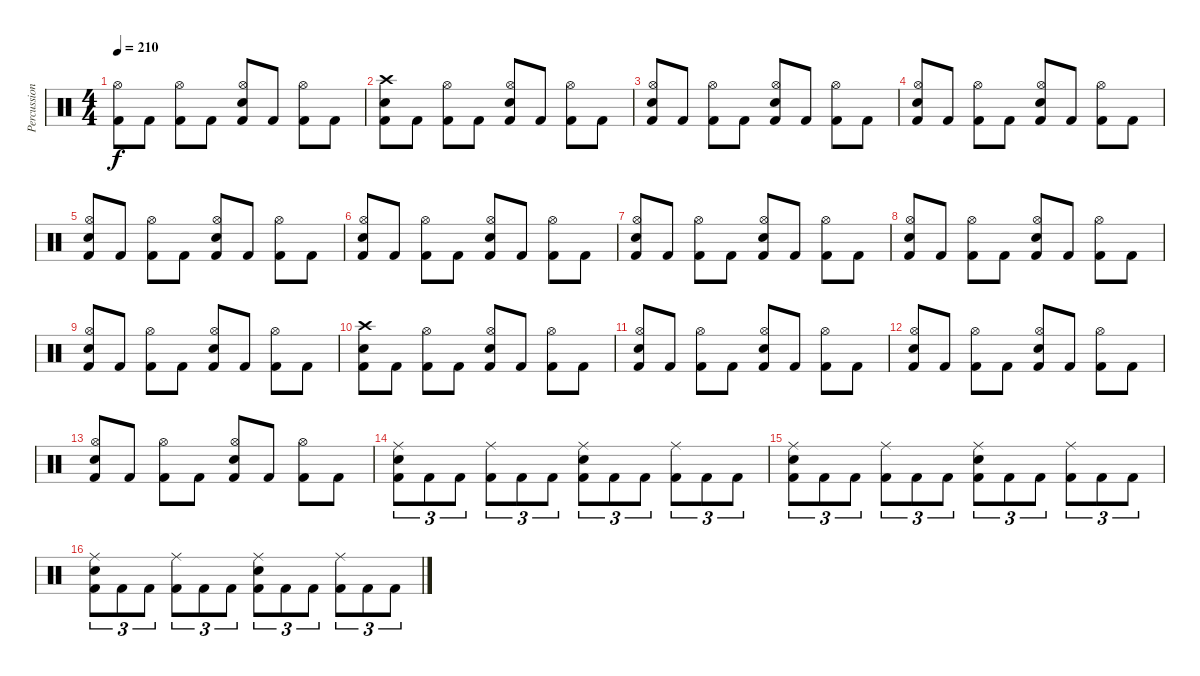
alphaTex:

\track ("Percussions" "Percussion") {instrument percussion}
\staff {score}
\articulation defaults
\ts (4 4)
\tempo 210
\clef neutral
\ks c
("Kick (hit) 2" "Hi-Hat (open)").8{dy f} "Kick (hit) 2".8 ("Kick (hit) 2" "Hi-Hat (open)").8 "Kick (hit) 2".8 ("Kick (hit) 2" "Electric Snare (hit)" "Hi-Hat (open)").8 "Kick (hit) 2".8 ("Kick (hit) 2" "Hi-Hat (open)").8 "Kick (hit) 2".8 |
("Kick (hit) 2" "Electric Snare (hit)" "Crash high (hit)").8 "Kick (hit) 2".8 ("Kick (hit) 2" "Hi-Hat (open)").8 "Kick (hit) 2".8 ("Kick (hit) 2" "Electric Snare (hit)" "Hi-Hat (open)").8 "Kick (hit) 2".8 ("Kick (hit) 2" "Hi-Hat (open)").8 "Kick (hit) 2".8 |
("Kick (hit) 2" "Electric Snare (hit)" "Hi-Hat (open)").8 "Kick (hit) 2".8 ("Kick (hit) 2" "Hi-Hat (open)").8 "Kick (hit) 2".8 ("Kick (hit) 2" "Electric Snare (hit)" "Hi-Hat (open)").8 "Kick (hit) 2".8 ("Kick (hit) 2" "Hi-Hat (open)").8 "Kick (hit) 2".8 |
("Kick (hit) 2" "Electric Snare (hit)" "Hi-Hat (open)").8 "Kick (hit) 2".8 ("Kick (hit) 2" "Hi-Hat (open)").8 "Kick (hit) 2".8 ("Kick (hit) 2" "Electric Snare (hit)" "Hi-Hat (open)").8 "Kick (hit) 2".8 ("Kick (hit) 2" "Hi-Hat (open)").8 "Kick (hit) 2".8 |
("Kick (hit) 2" "Electric Snare (hit)" "Hi-Hat (open)").8 "Kick (hit) 2".8 ("Kick (hit) 2" "Hi-Hat (open)").8 "Kick (hit) 2".8 ("Kick (hit) 2" "Electric Snare (hit)" "Hi-Hat (open)").8 "Kick (hit) 2".8 ("Kick (hit) 2" "Hi-Hat (open)").8 "Kick (hit) 2".8 |
("Kick (hit) 2" "Electric Snare (hit)" "Hi-Hat (open)").8 "Kick (hit) 2".8 ("Kick (hit) 2" "Hi-Hat (open)").8 "Kick (hit) 2".8 ("Kick (hit) 2" "Electric Snare (hit)" "Hi-Hat (open)").8 "Kick (hit) 2".8 ("Kick (hit) 2" "Hi-Hat (open)").8 "Kick (hit) 2".8 |
("Kick (hit) 2" "Electric Snare (hit)" "Hi-Hat (open)").8 "Kick (hit) 2".8 ("Kick (hit) 2" "Hi-Hat (open)").8 "Kick (hit) 2".8 ("Kick (hit) 2" "Electric Snare (hit)" "Hi-Hat (open)").8 "Kick (hit) 2".8 ("Kick (hit) 2" "Hi-Hat (open)").8 "Kick (hit) 2".8 |
("Kick (hit) 2" "Electric Snare (hit)" "Hi-Hat (open)").8 "Kick (hit) 2".8 ("Kick (hit) 2" "Hi-Hat (open)").8 "Kick (hit) 2".8 ("Kick (hit) 2" "Electric Snare (hit)" "Hi-Hat (open)").8 "Kick (hit) 2".8 ("Kick (hit) 2" "Hi-Hat (open)").8 "Kick (hit) 2".8 |
("Kick (hit) 2" "Electric Snare (hit)" "Hi-Hat (open)").8 "Kick (hit) 2".8 ("Kick (hit) 2" "Hi-Hat (open)").8 "Kick (hit) 2".8 ("Kick (hit) 2" "Electric Snare (hit)" "Hi-Hat (open)").8 "Kick (hit) 2".8 ("Kick (hit) 2" "Hi-Hat (open)").8 "Kick (hit) 2".8 |
("Kick (hit) 2" "Electric Snare (hit)" "Crash high (hit)").8 "Kick (hit) 2".8 ("Kick (hit) 2" "Hi-Hat (open)").8 "Kick (hit) 2".8 ("Kick (hit) 2" "Electric Snare (hit)" "Hi-Hat (open)").8 "Kick (hit) 2".8 ("Kick (hit) 2" "Hi-Hat (open)").8 "Kick (hit) 2".8 |
("Kick (hit) 2" "Electric Snare (hit)" "Hi-Hat (open)").8 "Kick (hit) 2".8 ("Kick (hit) 2" "Hi-Hat (open)").8 "Kick (hit) 2".8 ("Kick (hit) 2" "Electric Snare (hit)" "Hi-Hat (open)").8 "Kick (hit) 2".8 ("Kick (hit) 2" "Hi-Hat (open)").8 "Kick (hit) 2".8 |
("Kick (hit) 2" "Electric Snare (hit)" "Hi-Hat (open)").8 "Kick (hit) 2".8 ("Kick (hit) 2" "Hi-Hat (open)").8 "Kick (hit) 2".8 ("Kick (hit) 2" "Electric Snare (hit)" "Hi-Hat (open)").8 "Kick (hit) 2".8 ("Kick (hit) 2" "Hi-Hat (open)").8 "Kick (hit) 2".8 |
("Kick (hit) 2" "Electric Snare (hit)" "Hi-Hat (open)").8 "Kick (hit) 2".8 ("Kick (hit) 2" "Hi-Hat (open)").8 "Kick (hit) 2".8 ("Kick (hit) 2" "Electric Snare (hit)" "Hi-Hat (open)").8 "Kick (hit) 2".8 ("Kick (hit) 2" "Hi-Hat (open)").8 "Kick (hit) 2".8 |
("Kick (hit) 2" "Electric Snare (hit)" "Ride (middle)").8{tu (3 2)} "Kick (hit) 2".8{tu (3 2)} "Kick (hit) 2".8{tu (3 2)} ("Kick (hit) 2" "Ride (middle)").8{tu (3 2)} "Kick (hit) 2".8{tu (3 2)} "Kick (hit) 2".8{tu (3 2)} ("Kick (hit) 2" "Electric Snare (hit)" "Ride (middle)").8{tu (3 2)} "Kick (hit) 2".8{tu (3 2)} "Kick (hit) 2".8{tu (3 2)} ("Kick (hit) 2" "Ride (middle)").8{tu (3 2)} "Kick (hit) 2".8{tu (3 2)} "Kick (hit) 2".8{tu (3 2)} |
("Kick (hit) 2" "Electric Snare (hit)" "Ride (middle)").8{tu (3 2)} "Kick (hit) 2".8{tu (3 2)} "Kick (hit) 2".8{tu (3 2)} ("Kick (hit) 2" "Ride (middle)").8{tu (3 2)} "Kick (hit) 2".8{tu (3 2)} "Kick (hit) 2".8{tu (3 2)} ("Kick (hit) 2" "Electric Snare (hit)" "Ride (middle)").8{tu (3 2)} "Kick (hit) 2".8{tu (3 2)} "Kick (hit) 2".8{tu (3 2)} ("Kick (hit) 2" "Ride (middle)").8{tu (3 2)} "Kick (hit) 2".8{tu (3 2)} "Kick (hit) 2".8{tu (3 2)} |
("Kick (hit) 2" "Electric Snare (hit)" "Ride (middle)").8{tu (3 2)} "Kick (hit) 2".8{tu (3 2)} "Kick (hit) 2".8{tu (3 2)} ("Kick (hit) 2" "Ride (middle)").8{tu (3 2)} "Kick (hit) 2".8{tu (3 2)} "Kick (hit) 2".8{tu (3 2)} ("Kick (hit) 2" "Electric Snare (hit)" "Ride (middle)").8{tu (3 2)} "Kick (hit) 2".8{tu (3 2)} "Kick (hit) 2".8{tu (3 2)} ("Kick (hit) 2" "Ride (middle)").8{tu (3 2)} "Kick (hit) 2".8{tu (3 2)} "Kick (hit) 2".8{tu (3 2)}
